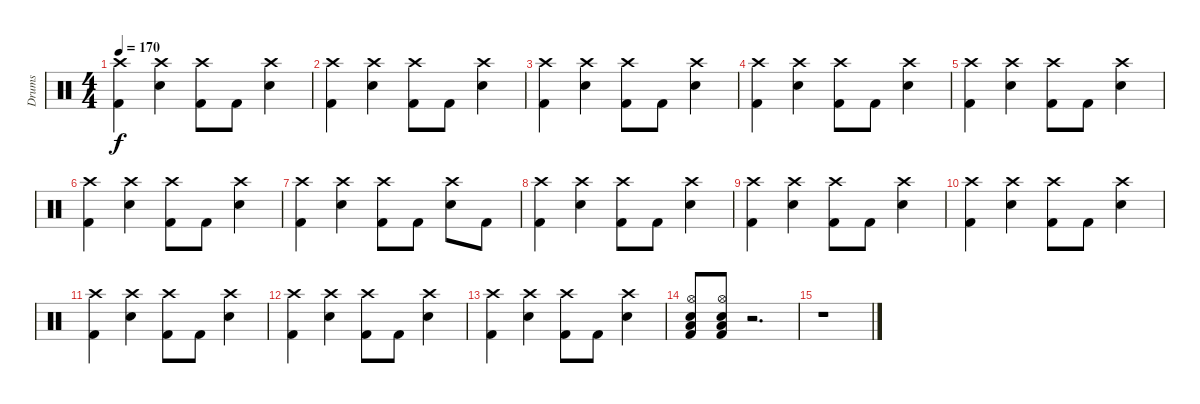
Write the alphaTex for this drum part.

\track ("Drums" "Drums") {instrument percussion}
\staff {score}
\articulation defaults
\ts (4 4)
\tempo 170
\clef neutral
\ks c
("Crash high (hit)" "Kick (hit) 2").4{dy f} ("Crash high (hit)" "Electric Snare (hit)").4 ("Crash high (hit)" "Kick (hit) 2").8 "Kick (hit) 2".8 ("Crash high (hit)" "Electric Snare (hit)").4 |
("Crash high (hit)" "Kick (hit) 2").4 ("Crash high (hit)" "Electric Snare (hit)").4 ("Crash high (hit)" "Kick (hit) 2").8 "Kick (hit) 2".8 ("Crash high (hit)" "Electric Snare (hit)").4 |
("Crash high (hit)" "Kick (hit) 2").4 ("Crash high (hit)" "Electric Snare (hit)").4 ("Crash high (hit)" "Kick (hit) 2").8 "Kick (hit) 2".8 ("Crash high (hit)" "Electric Snare (hit)").4 |
("Crash high (hit)" "Kick (hit) 2").4 ("Crash high (hit)" "Electric Snare (hit)").4 ("Crash high (hit)" "Kick (hit) 2").8 "Kick (hit) 2".8 ("Crash high (hit)" "Electric Snare (hit)").4 |
("Crash high (hit)" "Kick (hit) 2").4 ("Crash high (hit)" "Electric Snare (hit)").4 ("Crash high (hit)" "Kick (hit) 2").8 "Kick (hit) 2".8 ("Crash high (hit)" "Electric Snare (hit)").4 |
("Crash high (hit)" "Kick (hit) 2").4 ("Crash high (hit)" "Electric Snare (hit)").4 ("Crash high (hit)" "Kick (hit) 2").8 "Kick (hit) 2".8 ("Crash high (hit)" "Electric Snare (hit)").4 |
("Crash high (hit)" "Kick (hit) 2").4 ("Crash high (hit)" "Electric Snare (hit)").4 ("Crash high (hit)" "Kick (hit) 2").8 "Kick (hit) 2".8 ("Crash high (hit)" "Electric Snare (hit)").8 "Kick (hit) 2".8 |
("Crash high (hit)" "Kick (hit) 2").4 ("Crash high (hit)" "Electric Snare (hit)").4 ("Crash high (hit)" "Kick (hit) 2").8 "Kick (hit) 2".8 ("Crash high (hit)" "Electric Snare (hit)").4 |
("Crash high (hit)" "Kick (hit) 2").4 ("Crash high (hit)" "Electric Snare (hit)").4 ("Crash high (hit)" "Kick (hit) 2").8 "Kick (hit) 2".8 ("Crash high (hit)" "Electric Snare (hit)").4 |
("Crash high (hit)" "Kick (hit) 2").4 ("Crash high (hit)" "Electric Snare (hit)").4 ("Crash high (hit)" "Kick (hit) 2").8 "Kick (hit) 2".8 ("Crash high (hit)" "Electric Snare (hit)").4 |
("Crash high (hit)" "Kick (hit) 2").4 ("Crash high (hit)" "Electric Snare (hit)").4 ("Crash high (hit)" "Kick (hit) 2").8 "Kick (hit) 2".8 ("Crash high (hit)" "Electric Snare (hit)").4 |
("Crash high (hit)" "Kick (hit) 2").4 ("Crash high (hit)" "Electric Snare (hit)").4 ("Crash high (hit)" "Kick (hit) 2").8 "Kick (hit) 2".8 ("Crash high (hit)" "Electric Snare (hit)").4 |
("Crash high (hit)" "Kick (hit) 2").4 ("Crash high (hit)" "Electric Snare (hit)").4 ("Crash high (hit)" "Kick (hit) 2").8 "Kick (hit) 2".8 ("Crash high (hit)" "Electric Snare (hit)").4 |
("Hi-Hat (open)" "Low Floor Tom (hit)" "Electric Snare (hit)" "Kick (hit) 2").8 ("Hi-Hat (open)" "Low Floor Tom (hit)" "Electric Snare (hit)" "Kick (hit) 2").8 r.2{d} |
r.1
